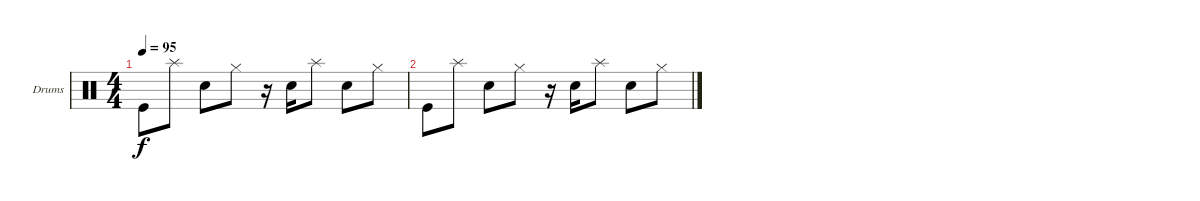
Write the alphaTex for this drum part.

\bracketExtendMode groupsimilarinstruments
\firstSystemTrackNameOrientation horizontal
\otherSystemsTrackNameOrientation horizontal
\track ("Drumkit" "Drums") {instrument percussion}
\staff {score}
\articulation defaults
\ts (4 4)
\tempo 95
\clef neutral
\ks c "Kick (hit)".8{dy f} "Splash (hit)".8 "Snare (hit) 2".8 "Hi-Hat (closed)".8
r.16 "Snare (hit) 2".16 "Splash (hit)".8 "Snare (hit) 2".8 "Hi-Hat (closed)".8 |
"Kick (hit)".8 "Splash (hit)".8 "Snare (hit) 2".8 "Hi-Hat (closed)".8 r.16 "Snare (hit) 2".16 "Splash (hit)".8 "Snare (hit) 2".8 "Hi-Hat (closed)".8
